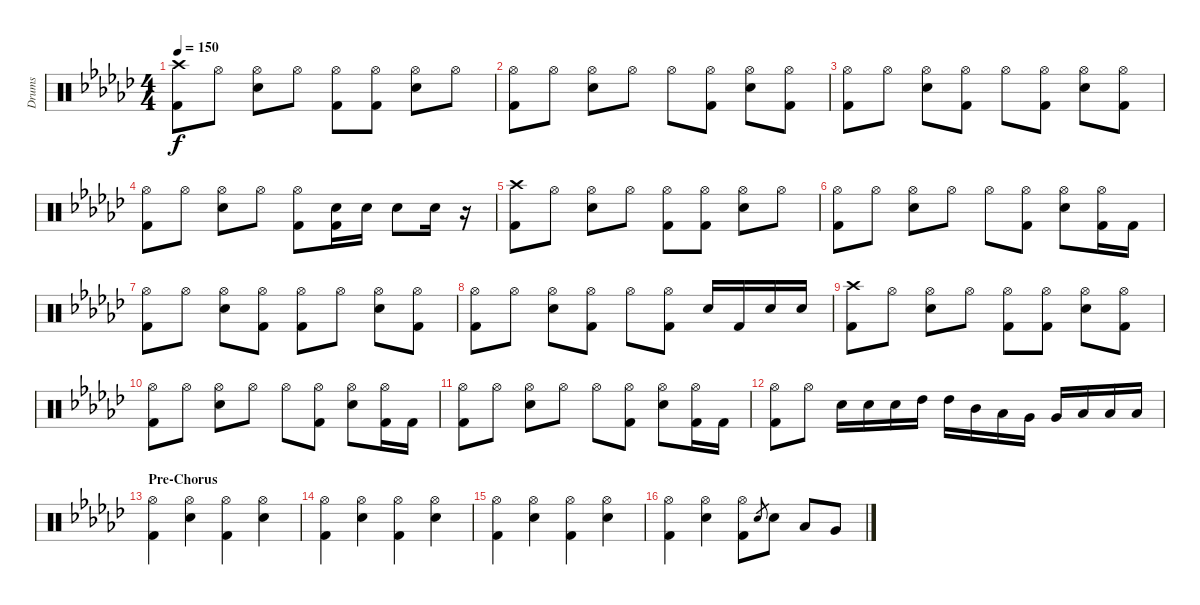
\track ("Drums" "Drums") {instrument percussion}
\staff {score}
\articulation defaults
\ts (4 4)
\tempo 150
\clef neutral
\ks gb
("Crash high (hit)" "Kick (hit) 2").8{dy f} "Hi-Hat (open)".8 ("Hi-Hat (open)" "Electric Snare (hit)").8 "Hi-Hat (open)".8 ("Hi-Hat (open)" "Kick (hit) 2").8 ("Hi-Hat (open)" "Kick (hit) 2").8 ("Hi-Hat (open)" "Electric Snare (hit)").8 "Hi-Hat (open)".8 |
("Hi-Hat (open)" "Kick (hit) 2").8 "Hi-Hat (open)".8 ("Hi-Hat (open)" "Electric Snare (hit)").8 "Hi-Hat (open)".8 "Hi-Hat (open)".8 ("Hi-Hat (open)" "Kick (hit) 2").8 ("Hi-Hat (open)" "Electric Snare (hit)").8 ("Hi-Hat (open)" "Kick (hit) 2").8 |
("Hi-Hat (open)" "Kick (hit) 2").8 "Hi-Hat (open)".8 ("Hi-Hat (open)" "Electric Snare (hit)").8 ("Hi-Hat (open)" "Kick (hit) 2").8 "Hi-Hat (open)".8 ("Hi-Hat (open)" "Kick (hit) 2").8 ("Hi-Hat (open)" "Electric Snare (hit)").8 ("Hi-Hat (open)" "Kick (hit) 2").8 |
("Hi-Hat (open)" "Kick (hit) 2").8 "Hi-Hat (open)".8 ("Hi-Hat (open)" "Electric Snare (hit)").8 "Hi-Hat (open)".8 ("Hi-Hat (open)" "Kick (hit) 2").8 ("Electric Snare (hit)" "Kick (hit) 2").16 "Electric Snare (hit)".16 "Electric Snare (hit)".8 "Electric Snare (hit)".16 r.16 |
("Crash high (hit)" "Kick (hit) 2").8 "Hi-Hat (open)".8 ("Hi-Hat (open)" "Electric Snare (hit)").8 "Hi-Hat (open)".8 ("Hi-Hat (open)" "Kick (hit) 2").8 ("Hi-Hat (open)" "Kick (hit) 2").8 ("Hi-Hat (open)" "Electric Snare (hit)").8 "Hi-Hat (open)".8 |
("Hi-Hat (open)" "Kick (hit) 2").8 "Hi-Hat (open)".8 ("Hi-Hat (open)" "Electric Snare (hit)").8 "Hi-Hat (open)".8 "Hi-Hat (open)".8 ("Hi-Hat (open)" "Kick (hit) 2").8 ("Hi-Hat (open)" "Electric Snare (hit)").8 ("Hi-Hat (open)" "Kick (hit) 2").16 "Kick (hit) 2".16 |
("Hi-Hat (open)" "Kick (hit) 2").8 "Hi-Hat (open)".8 ("Hi-Hat (open)" "Electric Snare (hit)").8 ("Hi-Hat (open)" "Kick (hit) 2").8 ("Hi-Hat (open)" "Kick (hit) 2").8 "Hi-Hat (open)".8 ("Hi-Hat (open)" "Electric Snare (hit)").8 ("Hi-Hat (open)" "Kick (hit) 2").8 |
("Hi-Hat (open)" "Kick (hit) 2").8 "Hi-Hat (open)".8 ("Hi-Hat (open)" "Electric Snare (hit)").8 ("Hi-Hat (open)" "Kick (hit) 2").8 "Hi-Hat (open)".8 ("Hi-Hat (open)" "Kick (hit) 2").8 "Electric Snare (hit)".16 "Kick (hit) 2".16 "Electric Snare (hit)".16 "Electric Snare (hit)".16 |
("Crash high (hit)" "Kick (hit) 2").8 "Hi-Hat (open)".8 ("Hi-Hat (open)" "Electric Snare (hit)").8 "Hi-Hat (open)".8 ("Hi-Hat (open)" "Kick (hit) 2").8 ("Hi-Hat (open)" "Kick (hit) 2").8 ("Hi-Hat (open)" "Electric Snare (hit)").8 ("Hi-Hat (open)" "Kick (hit) 2").8 |
("Hi-Hat (open)" "Kick (hit) 2").8 "Hi-Hat (open)".8 ("Hi-Hat (open)" "Electric Snare (hit)").8 "Hi-Hat (open)".8 "Hi-Hat (open)".8 ("Hi-Hat (open)" "Kick (hit) 2").8 ("Hi-Hat (open)" "Electric Snare (hit)").8 ("Hi-Hat (open)" "Kick (hit) 2").16 "Kick (hit) 2".16 |
("Hi-Hat (open)" "Kick (hit) 2").8 "Hi-Hat (open)".8 ("Hi-Hat (open)" "Electric Snare (hit)").8 "Hi-Hat (open)".8 "Hi-Hat (open)".8 ("Hi-Hat (open)" "Kick (hit) 2").8 ("Hi-Hat (open)" "Electric Snare (hit)").8 ("Hi-Hat (open)" "Kick (hit) 2").16 "Kick (hit) 2".16 |
("Hi-Hat (open)" "Kick (hit) 2").8 "Hi-Hat (open)".8 "Electric Snare (hit)".16 "Electric Snare (hit)".16 "Electric Snare (hit)".16 "High Tom (hit)".16 "High Tom (hit)".16 "Mid Tom (hit)".16 "Low Tom (hit)".16 "Very Low Tom (hit)".16 "Very Low Tom (hit)".16 "Low Floor Tom (hit)".16 "Low Floor Tom (hit)".16 "Low Floor Tom (hit)".16 |
\section ("" "Pre-Chorus")
("Hi-Hat (open)" "Kick (hit) 2").4 ("Hi-Hat (open)" "Electric Snare (hit)").4 ("Hi-Hat (open)" "Kick (hit) 2").4 ("Hi-Hat (open)" "Electric Snare (hit)").4 |
("Hi-Hat (open)" "Kick (hit) 2").4 ("Hi-Hat (open)" "Electric Snare (hit)").4 ("Hi-Hat (open)" "Kick (hit) 2").4 ("Hi-Hat (open)" "Electric Snare (hit)").4 |
("Hi-Hat (open)" "Kick (hit) 2").4 ("Hi-Hat (open)" "Electric Snare (hit)").4 ("Hi-Hat (open)" "Kick (hit) 2").4 ("Hi-Hat (open)" "Electric Snare (hit)").4 |
("Hi-Hat (open)" "Kick (hit) 2").4 ("Hi-Hat (open)" "Electric Snare (hit)").4 ("Hi-Hat (open)" "Kick (hit) 2").8 "Electric Snare (hit)".8{gr} "Electric Snare (hit)".8 "Low Tom (hit)".8 "Very Low Tom (hit)".8
